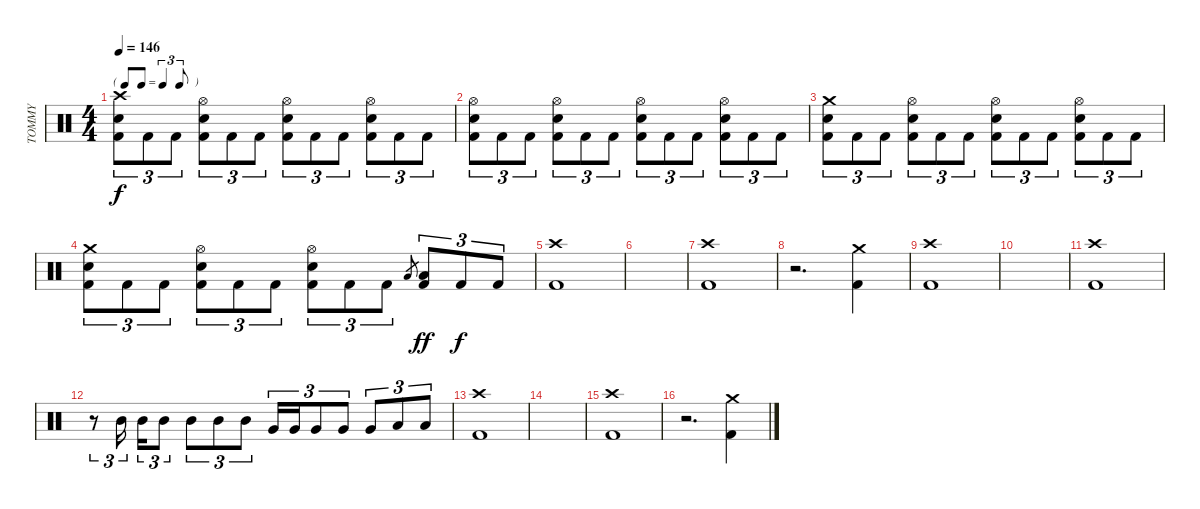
\track ("TOMMY" "TOMMY") {instrument percussion}
\staff {score}
\articulation defaults
\ts (4 4)
\tf triplet8th
\tempo 146
\clef neutral
\ks c
("Snare (hit) 2" "Kick (hit) 2" "Crash high (hit)").8{tu (3 2) dy f} "Kick (hit) 2".8{tu (3 2)} "Kick (hit) 2".8{tu (3 2)} ("Snare (hit) 2" "Kick (hit) 2" "Hi-Hat (open)").8{tu (3 2)} "Kick (hit) 2".8{tu (3 2)} "Kick (hit) 2".8{tu (3 2)} ("Snare (hit) 2" "Kick (hit) 2" "Hi-Hat (open)").8{tu (3 2)} "Kick (hit) 2".8{tu (3 2)} "Kick (hit) 2".8{tu (3 2)} ("Snare (hit) 2" "Kick (hit) 2" "Hi-Hat (open)").8{tu (3 2)} "Kick (hit) 2".8{tu (3 2)} "Kick (hit) 2".8{tu (3 2)} |
("Snare (hit) 2" "Kick (hit) 2" "Hi-Hat (open)").8{tu (3 2)} "Kick (hit) 2".8{tu (3 2)} "Kick (hit) 2".8{tu (3 2)} ("Snare (hit) 2" "Kick (hit) 2" "Hi-Hat (open)").8{tu (3 2)} "Kick (hit) 2".8{tu (3 2)} "Kick (hit) 2".8{tu (3 2)} ("Snare (hit) 2" "Kick (hit) 2" "Hi-Hat (open)").8{tu (3 2)} "Kick (hit) 2".8{tu (3 2)} "Kick (hit) 2".8{tu (3 2)} ("Snare (hit) 2" "Kick (hit) 2" "Hi-Hat (open)").8{tu (3 2)} "Kick (hit) 2".8{tu (3 2)} "Kick (hit) 2".8{tu (3 2)} |
("Snare (hit) 2" "Kick (hit) 2" "Crash medium (hit)").8{tu (3 2)} "Kick (hit) 2".8{tu (3 2)} "Kick (hit) 2".8{tu (3 2)} ("Snare (hit) 2" "Kick (hit) 2" "Hi-Hat (open)").8{tu (3 2)} "Kick (hit) 2".8{tu (3 2)} "Kick (hit) 2".8{tu (3 2)} ("Snare (hit) 2" "Kick (hit) 2" "Hi-Hat (open)").8{tu (3 2)} "Kick (hit) 2".8{tu (3 2)} "Kick (hit) 2".8{tu (3 2)} ("Snare (hit) 2" "Kick (hit) 2" "Hi-Hat (open)").8{tu (3 2)} "Kick (hit) 2".8{tu (3 2)} "Kick (hit) 2".8{tu (3 2)} |
("Snare (hit) 2" "Kick (hit) 2" "Crash medium (hit)").8{tu (3 2)} "Kick (hit) 2".8{tu (3 2)} "Kick (hit) 2".8{tu (3 2)} ("Snare (hit) 2" "Kick (hit) 2" "Hi-Hat (open)").8{tu (3 2)} "Kick (hit) 2".8{tu (3 2)} "Kick (hit) 2".8{tu (3 2)} ("Snare (hit) 2" "Kick (hit) 2" "Hi-Hat (open)").8{tu (3 2)} "Kick (hit) 2".8{tu (3 2)} "Kick (hit) 2".8{tu (3 2)} "Low Floor Tom (hit)".8{gr} ("Kick (hit) 2" "Low Floor Tom (hit)").8{tu (3 2) dy ff} "Kick (hit) 2".8{tu (3 2) dy f} "Kick (hit) 2".8{tu (3 2)} |
("Kick (hit) 2" "Crash high (hit)").1 |
|
("Kick (hit) 2" "Crash high (hit)").1 |
r.2{d} ("Kick (hit) 2" "Crash medium (hit)").4 |
("Kick (hit) 2" "Crash high (hit)").1 |
|
("Kick (hit) 2" "Crash high (hit)").1 |
r.8{tu (3 2)} "Mid Tom (hit)".16{tu (3 2)} "Mid Tom (hit)".16{tu (3 2)} "Mid Tom (hit)".8{tu (3 2)} "Mid Tom (hit)".8{tu (3 2)} "Mid Tom (hit)".8{tu (3 2)} "Mid Tom (hit)".8{tu (3 2)} "Very Low Tom (hit)".16{tu (3 2)} "Very Low Tom (hit)".16{tu (3 2)} "Very Low Tom (hit)".8{tu (3 2)} "Very Low Tom (hit)".8{tu (3 2)} "Very Low Tom (hit)".8{tu (3 2)} "Low Floor Tom (hit)".8{tu (3 2)} "Low Floor Tom (hit)".8{tu (3 2)} |
("Kick (hit) 2" "Crash high (hit)").1 |
|
("Kick (hit) 2" "Crash high (hit)").1 |
r.2{d} ("Kick (hit) 2" "Crash medium (hit)").4
